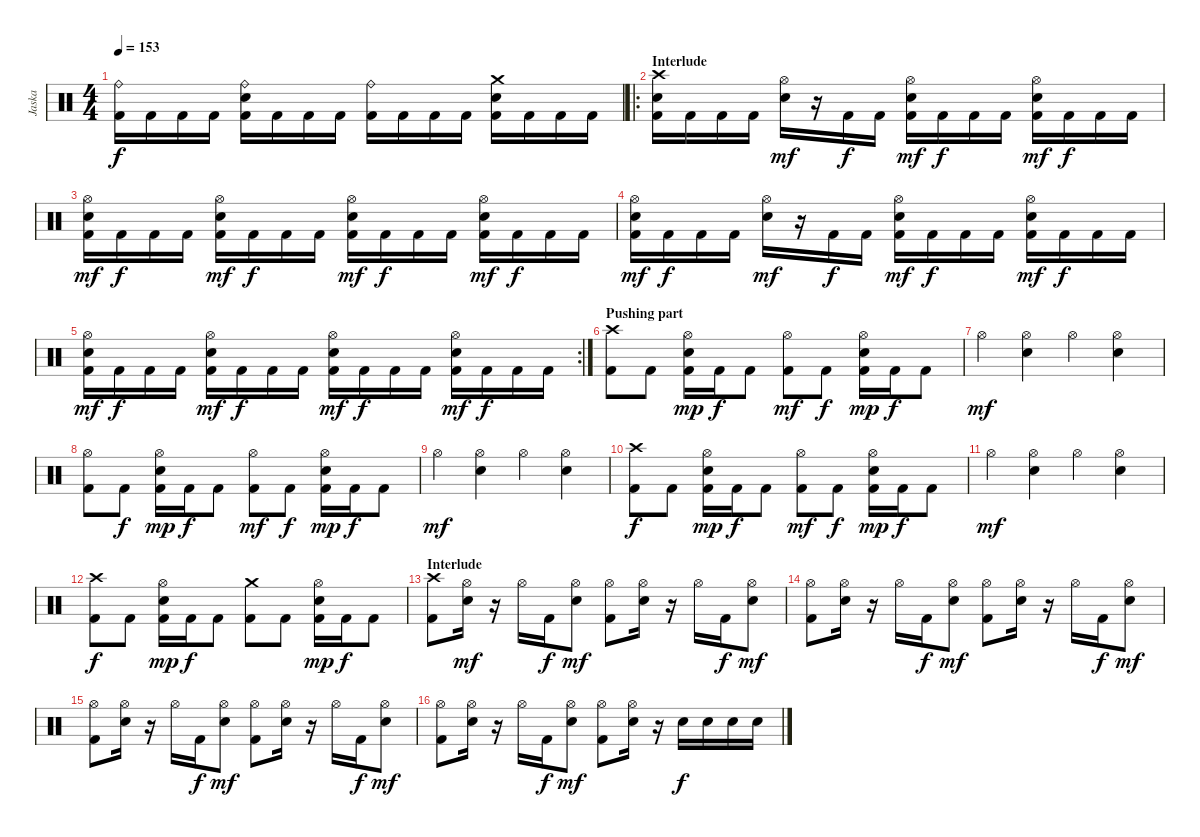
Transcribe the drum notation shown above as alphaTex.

\track ("Jaska" "Jaska") {instrument percussion}
\staff {score}
\articulation defaults
\ts (4 4)
\tempo 153
\clef neutral
\ks c
("Ride (bell)" "Kick (hit) 2").16{dy f} "Kick (hit) 2".16 "Kick (hit) 2".16 "Kick (hit) 2".16 ("Ride (bell)" "Electric Snare (hit)" "Kick (hit) 2").16 "Kick (hit) 2".16 "Kick (hit) 2".16 "Kick (hit) 2".16 ("Ride (bell)" "Kick (hit) 2").16 "Kick (hit) 2".16 "Kick (hit) 2".16 "Kick (hit) 2".16 ("Crash medium (hit)" "Electric Snare (hit)" "Kick (hit) 2").16 "Kick (hit) 2".16 "Kick (hit) 2".16 "Kick (hit) 2".16 |
\ro
\section ("" "Interlude")
("Crash high (hit)" "Electric Snare (hit)" "Kick (hit) 2").16 "Kick (hit) 2".16 "Kick (hit) 2".16 "Kick (hit) 2".16 ("Hi-Hat (open)" "Electric Snare (hit)").16{dy mf} r.16 "Kick (hit) 2".16{dy f} "Kick (hit) 2".16 ("Hi-Hat (open)" "Electric Snare (hit)" "Kick (hit) 2").16{dy mf} "Kick (hit) 2".16{dy f} "Kick (hit) 2".16 "Kick (hit) 2".16 ("Hi-Hat (open)" "Electric Snare (hit)" "Kick (hit) 2").16{dy mf} "Kick (hit) 2".16{dy f} "Kick (hit) 2".16 "Kick (hit) 2".16 |
("Hi-Hat (open)" "Electric Snare (hit)" "Kick (hit) 2").16{dy mf} "Kick (hit) 2".16{dy f} "Kick (hit) 2".16 "Kick (hit) 2".16 ("Hi-Hat (open)" "Electric Snare (hit)" "Kick (hit) 2").16{dy mf} "Kick (hit) 2".16{dy f} "Kick (hit) 2".16 "Kick (hit) 2".16 ("Hi-Hat (open)" "Electric Snare (hit)" "Kick (hit) 2").16{dy mf} "Kick (hit) 2".16{dy f} "Kick (hit) 2".16 "Kick (hit) 2".16 ("Hi-Hat (open)" "Electric Snare (hit)" "Kick (hit) 2").16{dy mf} "Kick (hit) 2".16{dy f} "Kick (hit) 2".16 "Kick (hit) 2".16 |
("Hi-Hat (open)" "Electric Snare (hit)" "Kick (hit) 2").16{dy mf} "Kick (hit) 2".16{dy f} "Kick (hit) 2".16 "Kick (hit) 2".16 ("Hi-Hat (open)" "Electric Snare (hit)").16{dy mf} r.16 "Kick (hit) 2".16{dy f} "Kick (hit) 2".16 ("Hi-Hat (open)" "Electric Snare (hit)" "Kick (hit) 2").16{dy mf} "Kick (hit) 2".16{dy f} "Kick (hit) 2".16 "Kick (hit) 2".16 ("Hi-Hat (open)" "Electric Snare (hit)" "Kick (hit) 2").16{dy mf} "Kick (hit) 2".16{dy f} "Kick (hit) 2".16 "Kick (hit) 2".16 |
\rc 2
("Hi-Hat (open)" "Electric Snare (hit)" "Kick (hit) 2").16{dy mf} "Kick (hit) 2".16{dy f} "Kick (hit) 2".16 "Kick (hit) 2".16 ("Hi-Hat (open)" "Electric Snare (hit)" "Kick (hit) 2").16{dy mf} "Kick (hit) 2".16{dy f} "Kick (hit) 2".16 "Kick (hit) 2".16 ("Hi-Hat (open)" "Electric Snare (hit)" "Kick (hit) 2").16{dy mf} "Kick (hit) 2".16{dy f} "Kick (hit) 2".16 "Kick (hit) 2".16 ("Hi-Hat (open)" "Electric Snare (hit)" "Kick (hit) 2").16{dy mf} "Kick (hit) 2".16{dy f} "Kick (hit) 2".16 "Kick (hit) 2".16 |
\section ("" "Pushing part")
("Crash high (hit)" "Kick (hit) 2").8 "Kick (hit) 2".8 ("Hi-Hat (open)" "Electric Snare (hit)" "Kick (hit) 2").16{dy mp} "Kick (hit) 2".16{dy f} "Kick (hit) 2".8 ("Hi-Hat (open)" "Kick (hit) 2").8{dy mf} "Kick (hit) 2".8{dy f} ("Hi-Hat (open)" "Electric Snare (hit)" "Kick (hit) 2").16{dy mp} "Kick (hit) 2".16{dy f} "Kick (hit) 2".8 |
"Hi-Hat (open)".4{dy mf} ("Hi-Hat (open)" "Electric Snare (hit)").4 "Hi-Hat (open)".4 ("Hi-Hat (open)" "Electric Snare (hit)").4 |
("Hi-Hat (open)" "Kick (hit) 2").8 "Kick (hit) 2".8{dy f} ("Hi-Hat (open)" "Electric Snare (hit)" "Kick (hit) 2").16{dy mp} "Kick (hit) 2".16{dy f} "Kick (hit) 2".8 ("Hi-Hat (open)" "Kick (hit) 2").8{dy mf} "Kick (hit) 2".8{dy f} ("Hi-Hat (open)" "Electric Snare (hit)" "Kick (hit) 2").16{dy mp} "Kick (hit) 2".16{dy f} "Kick (hit) 2".8 |
"Hi-Hat (open)".4{dy mf} ("Hi-Hat (open)" "Electric Snare (hit)").4 "Hi-Hat (open)".4 ("Hi-Hat (open)" "Electric Snare (hit)").4 |
("Crash high (hit)" "Kick (hit) 2").8{dy f} "Kick (hit) 2".8 ("Hi-Hat (open)" "Electric Snare (hit)" "Kick (hit) 2").16{dy mp} "Kick (hit) 2".16{dy f} "Kick (hit) 2".8 ("Hi-Hat (open)" "Kick (hit) 2").8{dy mf} "Kick (hit) 2".8{dy f} ("Hi-Hat (open)" "Electric Snare (hit)" "Kick (hit) 2").16{dy mp} "Kick (hit) 2".16{dy f} "Kick (hit) 2".8 |
"Hi-Hat (open)".4{dy mf} ("Hi-Hat (open)" "Electric Snare (hit)").4 "Hi-Hat (open)".4 ("Hi-Hat (open)" "Electric Snare (hit)").4 |
("Crash high (hit)" "Kick (hit) 2").8{dy f} "Kick (hit) 2".8 ("Hi-Hat (open)" "Electric Snare (hit)" "Kick (hit) 2").16{dy mp} "Kick (hit) 2".16{dy f} "Kick (hit) 2".8 ("Crash medium (hit)" "Kick (hit) 2").8 "Kick (hit) 2".8 ("Hi-Hat (open)" "Electric Snare (hit)" "Kick (hit) 2").16{dy mp} "Kick (hit) 2".16{dy f} "Kick (hit) 2".8 |
\section ("" "Interlude")
("Crash high (hit)" "Kick (hit) 2").8 ("Hi-Hat (open)" "Electric Snare (hit)").16{dy mf} r.16 "Hi-Hat (open)".16 "Kick (hit) 2".16{dy f} ("Hi-Hat (open)" "Electric Snare (hit)").8{dy mf} ("Hi-Hat (open)" "Kick (hit) 2").8 ("Hi-Hat (open)" "Electric Snare (hit)").16 r.16 "Hi-Hat (open)".16 "Kick (hit) 2".16{dy f} ("Hi-Hat (open)" "Electric Snare (hit)").8{dy mf} |
("Hi-Hat (open)" "Kick (hit) 2").8 ("Hi-Hat (open)" "Electric Snare (hit)").16 r.16 "Hi-Hat (open)".16 "Kick (hit) 2".16{dy f} ("Hi-Hat (open)" "Electric Snare (hit)").8{dy mf} ("Hi-Hat (open)" "Kick (hit) 2").8 ("Hi-Hat (open)" "Electric Snare (hit)").16 r.16 "Hi-Hat (open)".16 "Kick (hit) 2".16{dy f} ("Hi-Hat (open)" "Electric Snare (hit)").8{dy mf} |
("Hi-Hat (open)" "Kick (hit) 2").8 ("Hi-Hat (open)" "Electric Snare (hit)").16 r.16 "Hi-Hat (open)".16 "Kick (hit) 2".16{dy f} ("Hi-Hat (open)" "Electric Snare (hit)").8{dy mf} ("Hi-Hat (open)" "Kick (hit) 2").8 ("Hi-Hat (open)" "Electric Snare (hit)").16 r.16 "Hi-Hat (open)".16 "Kick (hit) 2".16{dy f} ("Hi-Hat (open)" "Electric Snare (hit)").8{dy mf} |
("Hi-Hat (open)" "Kick (hit) 2").8 ("Hi-Hat (open)" "Electric Snare (hit)").16 r.16 "Hi-Hat (open)".16 "Kick (hit) 2".16{dy f} ("Hi-Hat (open)" "Electric Snare (hit)").8{dy mf} ("Hi-Hat (open)" "Kick (hit) 2").8 ("Hi-Hat (open)" "Electric Snare (hit)").16 r.16 "Electric Snare (hit)".16{dy f} "Electric Snare (hit)".16 "Electric Snare (hit)".16 "Electric Snare (hit)".16
